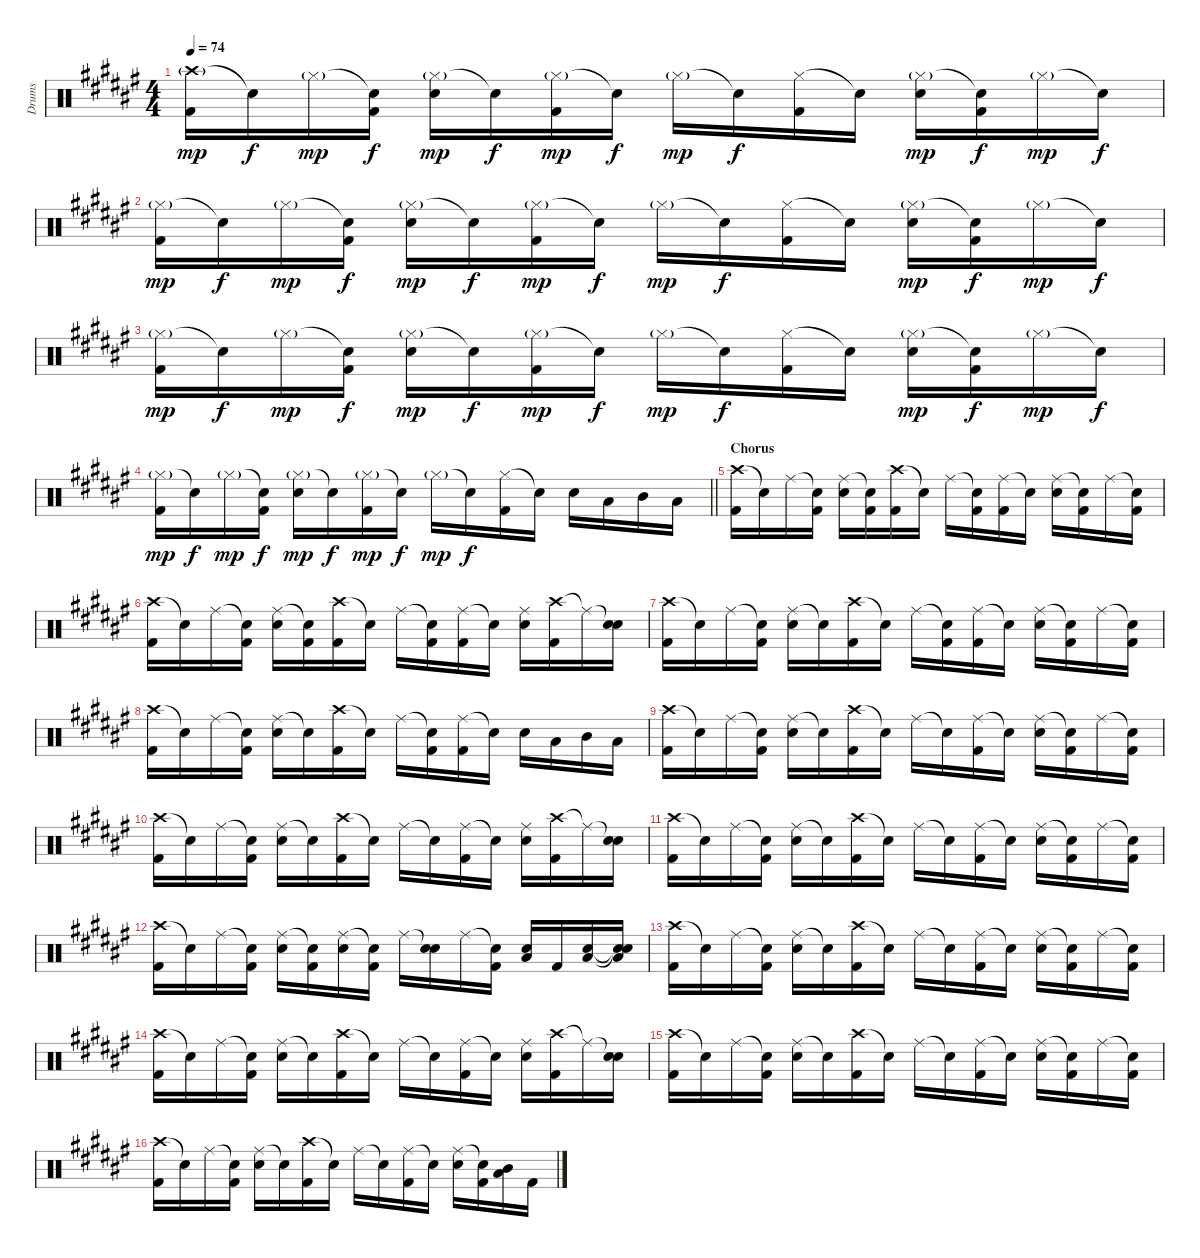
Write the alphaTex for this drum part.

\track ("Drums" "Drums") {instrument percussion}
\staff {score}
\articulation defaults
\ts (4 4)
\tempo 74
\clef neutral
\ks f#
("Crash high (hit)"{g} "Kick (hit) 2").16{dy mp} "Snare (hit)"{t}.16{dy f} "Hi-Hat (closed)"{g}.16{dy mp} ("Snare (hit)"{t} "Kick (hit) 2").16{dy f} ("Hi-Hat (closed)"{g} "Electric Snare (hit)").16{dy mp} "Snare (hit)"{t}.16{dy f} ("Hi-Hat (closed)"{g} "Kick (hit) 2").16{dy mp} "Snare (hit)"{t}.16{dy f} "Hi-Hat (closed)"{g}.16{dy mp} "Snare (hit)"{t}.16{dy f} ("Hi-Hat (closed)" "Kick (hit) 2").16 "Snare (hit)"{t}.16 ("Hi-Hat (closed)"{g} "Electric Snare (hit)").16{dy mp} ("Snare (hit)"{t} "Kick (hit) 2").16{dy f} "Hi-Hat (closed)"{g}.16{dy mp} "Snare (hit)"{t}.16{dy f} |
("Hi-Hat (closed)"{g} "Kick (hit) 2").16{dy mp} "Snare (hit)"{t}.16{dy f} "Hi-Hat (closed)"{g}.16{dy mp} ("Snare (hit)"{t} "Kick (hit) 2").16{dy f} ("Hi-Hat (closed)"{g} "Electric Snare (hit)").16{dy mp} "Snare (hit)"{t}.16{dy f} ("Hi-Hat (closed)"{g} "Kick (hit) 2").16{dy mp} "Snare (hit)"{t}.16{dy f} "Hi-Hat (closed)"{g}.16{dy mp} "Snare (hit)"{t}.16{dy f} ("Hi-Hat (closed)" "Kick (hit) 2").16 "Snare (hit)"{t}.16 ("Hi-Hat (closed)"{g} "Electric Snare (hit)").16{dy mp} ("Snare (hit)"{t} "Kick (hit) 2").16{dy f} "Hi-Hat (closed)"{g}.16{dy mp} "Snare (hit)"{t}.16{dy f} |
("Hi-Hat (closed)"{g} "Kick (hit) 2").16{dy mp} "Snare (hit)"{t}.16{dy f} "Hi-Hat (closed)"{g}.16{dy mp} ("Snare (hit)"{t} "Kick (hit) 2").16{dy f} ("Hi-Hat (closed)"{g} "Electric Snare (hit)").16{dy mp} "Snare (hit)"{t}.16{dy f} ("Hi-Hat (closed)"{g} "Kick (hit) 2").16{dy mp} "Snare (hit)"{t}.16{dy f} "Hi-Hat (closed)"{g}.16{dy mp} "Snare (hit)"{t}.16{dy f} ("Hi-Hat (closed)" "Kick (hit) 2").16 "Snare (hit)"{t}.16 ("Hi-Hat (closed)"{g} "Electric Snare (hit)").16{dy mp} ("Snare (hit)"{t} "Kick (hit) 2").16{dy f} "Hi-Hat (closed)"{g}.16{dy mp} "Snare (hit)"{t}.16{dy f} |
\barLineRight lightlight
("Hi-Hat (closed)"{g} "Kick (hit) 2").16{dy mp} "Snare (hit)"{t}.16{dy f} "Hi-Hat (closed)"{g}.16{dy mp} ("Snare (hit)"{t} "Kick (hit) 2").16{dy f} ("Hi-Hat (closed)"{g} "Electric Snare (hit)").16{dy mp} "Snare (hit)"{t}.16{dy f} ("Hi-Hat (closed)"{g} "Kick (hit) 2").16{dy mp} "Snare (hit)"{t}.16{dy f} "Hi-Hat (closed)"{g}.16{dy mp} "Snare (hit)"{t}.16{dy f} ("Hi-Hat (closed)" "Kick (hit) 2").16 "Snare (hit)"{t}.16 "Electric Snare (hit)".16 "Low Tom (hit)".16 "Mid Tom (hit)".16 "Low Floor Tom (hit)".16 |
\section ("" "Chorus")
("Crash high (hit)" "Kick (hit) 2").16 "Snare (hit)"{t}.16 "Ride (middle)".16 ("Snare (hit)"{t} "Kick (hit) 2").16 ("Ride (middle)" "Electric Snare (hit)").16 ("Snare (hit)"{t} "Kick (hit) 2").16 ("Crash high (hit)" "Kick (hit) 2").16 "Snare (hit)"{t}.16 "Ride (middle)".16 ("Snare (hit)"{t} "Kick (hit) 2").16 ("Ride (middle)" "Kick (hit) 2").16 "Snare (hit)"{t}.16 ("Ride (middle)" "Electric Snare (hit)").16 ("Snare (hit)"{t} "Kick (hit) 2").16 "Ride (middle)".16 ("Snare (hit)"{t} "Kick (hit) 2").16 |
("Crash high (hit)" "Kick (hit) 2").16 "Snare (hit)"{t}.16 "Ride (middle)".16 ("Snare (hit)"{t} "Kick (hit) 2").16 ("Ride (middle)" "Electric Snare (hit)").16 ("Snare (hit)"{t} "Kick (hit) 2").16 ("Crash high (hit)" "Kick (hit) 2").16 "Snare (hit)"{t}.16 "Ride (middle)".16 ("Snare (hit)"{t} "Kick (hit) 2").16 ("Ride (middle)" "Kick (hit) 2").16 "Snare (hit)"{t}.16 ("Ride (middle)" "Electric Snare (hit)").16 ("Crash high (hit)" "Kick (hit) 2").16 "Ride (middle)"{t}.16 ("Snare (hit)"{t} "Electric Snare (hit)").16 |
("Crash high (hit)" "Kick (hit) 2").16 "Snare (hit)"{t}.16 "Ride (middle)".16 ("Snare (hit)"{t} "Kick (hit) 2").16 ("Ride (middle)" "Electric Snare (hit)").16 "Snare (hit)"{t}.16 ("Crash high (hit)" "Kick (hit) 2").16 "Snare (hit)"{t}.16 "Ride (middle)".16 ("Snare (hit)"{t} "Kick (hit) 2").16 ("Ride (middle)" "Kick (hit) 2").16 "Snare (hit)"{t}.16 ("Ride (middle)" "Electric Snare (hit)").16 ("Snare (hit)"{t} "Kick (hit) 2").16 "Ride (middle)".16 ("Snare (hit)"{t} "Kick (hit) 2").16 |
("Crash high (hit)" "Kick (hit) 2").16 "Snare (hit)"{t}.16 "Ride (middle)".16 ("Snare (hit)"{t} "Kick (hit) 2").16 ("Ride (middle)" "Electric Snare (hit)").16 "Snare (hit)"{t}.16 ("Crash high (hit)" "Kick (hit) 2").16 "Snare (hit)"{t}.16 "Ride (middle)".16 ("Snare (hit)"{t} "Kick (hit) 2").16 ("Ride (middle)" "Kick (hit) 2").16 "Snare (hit)"{t}.16 "Electric Snare (hit)".16 "Low Tom (hit)".16 "Mid Tom (hit)".16 "Low Floor Tom (hit)".16 |
("Crash high (hit)" "Kick (hit) 2").16 "Snare (hit)"{t}.16 "Ride (middle)".16 ("Snare (hit)"{t} "Kick (hit) 2").16 ("Ride (middle)" "Electric Snare (hit)").16 "Snare (hit)"{t}.16 ("Crash high (hit)" "Kick (hit) 2").16 "Snare (hit)"{t}.16 "Ride (middle)".16 "Snare (hit)"{t}.16 ("Ride (middle)" "Kick (hit) 2").16 "Snare (hit)"{t}.16 ("Ride (middle)" "Electric Snare (hit)").16 ("Snare (hit)"{t} "Kick (hit) 2").16 "Ride (middle)".16 ("Snare (hit)"{t} "Kick (hit) 2").16 |
("Crash high (hit)" "Kick (hit) 2").16 "Snare (hit)"{t}.16 "Ride (middle)".16 ("Snare (hit)"{t} "Kick (hit) 2").16 ("Ride (middle)" "Electric Snare (hit)").16 "Snare (hit)"{t}.16 ("Crash high (hit)" "Kick (hit) 2").16 "Snare (hit)"{t}.16 "Ride (middle)".16 "Snare (hit)"{t}.16 ("Ride (middle)" "Kick (hit) 2").16 "Snare (hit)"{t}.16 ("Ride (middle)" "Electric Snare (hit)").16 ("Crash high (hit)" "Kick (hit) 2").16 "Ride (middle)"{t}.16 ("Snare (hit)"{t} "Electric Snare (hit)").16 |
("Crash high (hit)" "Kick (hit) 2").16 "Snare (hit)"{t}.16 "Ride (middle)".16 ("Snare (hit)"{t} "Kick (hit) 2").16 ("Ride (middle)" "Electric Snare (hit)").16 "Snare (hit)"{t}.16 ("Crash high (hit)" "Kick (hit) 2").16 "Snare (hit)"{t}.16 "Ride (middle)".16 "Snare (hit)"{t}.16 ("Ride (middle)" "Kick (hit) 2").16 "Snare (hit)"{t}.16 ("Ride (middle)" "Electric Snare (hit)").16 ("Snare (hit)"{t} "Kick (hit) 2").16 "Ride (middle)".16 ("Snare (hit)"{t} "Kick (hit) 2").16 |
("Crash high (hit)" "Kick (hit) 2").16 "Snare (hit)"{t}.16 "Ride (middle)".16 ("Snare (hit)"{t} "Kick (hit) 2").16 ("Ride (middle)" "Electric Snare (hit)").16 ("Snare (hit)"{t} "Kick (hit) 2").16 ("Ride (middle)" "Electric Snare (hit)").16 ("Snare (hit)"{t} "Kick (hit) 2").16 "Ride (middle)".16 ("Snare (hit)"{t} "Electric Snare (hit)").16 "Ride (middle)".16 ("Snare (hit)"{t} "Kick (hit) 2").16 ("Electric Snare (hit)" "Low Floor Tom (hit)").16 "Kick (hit) 2".16 ("Electric Snare (hit)" "Low Floor Tom (hit)").16 ("Snare (hit)"{t} "Snare (hit)"{t} "Low Floor Tom (hit)").16 |
("Crash high (hit)" "Kick (hit) 2").16 "Snare (hit)"{t}.16 "Ride (middle)".16 ("Snare (hit)"{t} "Kick (hit) 2").16 ("Ride (middle)" "Electric Snare (hit)").16 "Snare (hit)"{t}.16 ("Crash high (hit)" "Kick (hit) 2").16 "Snare (hit)"{t}.16 "Ride (middle)".16 "Snare (hit)"{t}.16 ("Ride (middle)" "Kick (hit) 2").16 "Snare (hit)"{t}.16 ("Ride (middle)" "Electric Snare (hit)").16 ("Snare (hit)"{t} "Kick (hit) 2").16 "Ride (middle)".16 ("Snare (hit)"{t} "Kick (hit) 2").16 |
("Crash high (hit)" "Kick (hit) 2").16 "Snare (hit)"{t}.16 "Ride (middle)".16 ("Snare (hit)"{t} "Kick (hit) 2").16 ("Ride (middle)" "Electric Snare (hit)").16 "Snare (hit)"{t}.16 ("Crash high (hit)" "Kick (hit) 2").16 "Snare (hit)"{t}.16 "Ride (middle)".16 "Snare (hit)"{t}.16 ("Ride (middle)" "Kick (hit) 2").16 "Snare (hit)"{t}.16 ("Ride (middle)" "Electric Snare (hit)").16 ("Crash high (hit)" "Kick (hit) 2").16 "Ride (middle)"{t}.16 ("Snare (hit)"{t} "Electric Snare (hit)").16 |
("Crash high (hit)" "Kick (hit) 2").16 "Snare (hit)"{t}.16 "Ride (middle)".16 ("Snare (hit)"{t} "Kick (hit) 2").16 ("Ride (middle)" "Electric Snare (hit)").16 "Snare (hit)"{t}.16 ("Crash high (hit)" "Kick (hit) 2").16 "Snare (hit)"{t}.16 "Ride (middle)".16 "Snare (hit)"{t}.16 ("Ride (middle)" "Kick (hit) 2").16 "Snare (hit)"{t}.16 ("Ride (middle)" "Electric Snare (hit)").16 ("Snare (hit)"{t} "Kick (hit) 2").16 "Ride (middle)".16 ("Snare (hit)"{t} "Kick (hit) 2").16 |
("Crash high (hit)" "Kick (hit) 2").16 "Snare (hit)"{t}.16 "Ride (middle)".16 ("Snare (hit)"{t} "Kick (hit) 2").16 ("Ride (middle)" "Electric Snare (hit)").16 "Snare (hit)"{t}.16 ("Crash high (hit)" "Kick (hit) 2").16 "Snare (hit)"{t}.16 "Ride (middle)".16 "Snare (hit)"{t}.16 ("Ride (middle)" "Kick (hit) 2").16 "Snare (hit)"{t}.16 ("Ride (middle)" "Electric Snare (hit)").16 ("Snare (hit)"{t} "Kick (hit) 2").16 ("Mid Tom (hit)" "Low Floor Tom (hit)").16 "Kick (hit) 2".16
